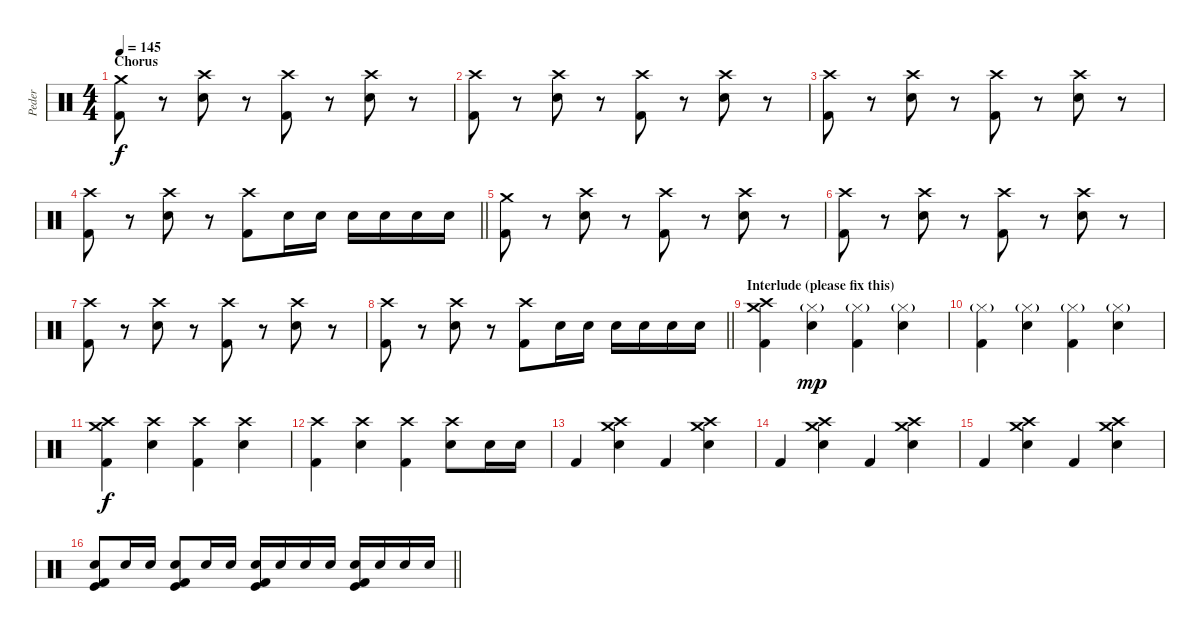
\track ("Peder" "Peder") {instrument percussion}
\staff {score}
\articulation defaults
\ts (4 4)
\section ("" "Chorus")
\tempo 145
\clef neutral
\ks c
("Crash medium (hit)" "Kick (hit) 2").8{dy f} r.8 ("Crash high (hit)" "Electric Snare (hit)").8 r.8 ("Crash high (hit)" "Kick (hit) 2").8 r.8 ("Crash high (hit)" "Electric Snare (hit)").8 r.8 |
("Crash high (hit)" "Kick (hit) 2").8 r.8 ("Crash high (hit)" "Electric Snare (hit)").8 r.8 ("Crash high (hit)" "Kick (hit) 2").8 r.8 ("Crash high (hit)" "Electric Snare (hit)").8 r.8 |
("Crash high (hit)" "Kick (hit) 2").8 r.8 ("Crash high (hit)" "Electric Snare (hit)").8 r.8 ("Crash high (hit)" "Kick (hit) 2").8 r.8 ("Crash high (hit)" "Electric Snare (hit)").8 r.8 |
\barLineRight lightlight
("Crash high (hit)" "Kick (hit) 2").8 r.8 ("Crash high (hit)" "Electric Snare (hit)").8 r.8 ("Crash high (hit)" "Kick (hit) 2").8 "Electric Snare (hit)".16 "Electric Snare (hit)".16 "Electric Snare (hit)".16 "Electric Snare (hit)".16 "Electric Snare (hit)".16 "Electric Snare (hit)".16 |
("Crash medium (hit)" "Kick (hit) 2").8 r.8 ("Crash high (hit)" "Electric Snare (hit)").8 r.8 ("Crash high (hit)" "Kick (hit) 2").8 r.8 ("Crash high (hit)" "Electric Snare (hit)").8 r.8 |
("Crash high (hit)" "Kick (hit) 2").8 r.8 ("Crash high (hit)" "Electric Snare (hit)").8 r.8 ("Crash high (hit)" "Kick (hit) 2").8 r.8 ("Crash high (hit)" "Electric Snare (hit)").8 r.8 |
("Crash high (hit)" "Kick (hit) 2").8 r.8 ("Crash high (hit)" "Electric Snare (hit)").8 r.8 ("Crash high (hit)" "Kick (hit) 2").8 r.8 ("Crash high (hit)" "Electric Snare (hit)").8 r.8 |
\barLineRight lightlight
("Crash high (hit)" "Kick (hit) 2").8 r.8 ("Crash high (hit)" "Electric Snare (hit)").8 r.8 ("Crash high (hit)" "Kick (hit) 2").8 "Electric Snare (hit)".16 "Electric Snare (hit)".16 "Electric Snare (hit)".16 "Electric Snare (hit)".16 "Electric Snare (hit)".16 "Electric Snare (hit)".16 |
\section ("" "Interlude (please fix this)")
("Crash medium (hit)" "Crash high (hit)" "Kick (hit) 2").4 ("Hi-Hat (closed)"{g} "Snare (hit) 2").4{dy mp} ("Hi-Hat (closed)"{g} "Kick (hit) 2").4 ("Hi-Hat (closed)"{g} "Snare (hit) 2").4 |
("Hi-Hat (closed)"{g} "Kick (hit) 2").4 ("Hi-Hat (closed)"{g} "Snare (hit) 2").4 ("Hi-Hat (closed)"{g} "Kick (hit) 2").4 ("Hi-Hat (closed)"{g} "Snare (hit) 2").4 |
("Crash high (hit)" "Crash medium (hit)" "Kick (hit) 2").4{dy f} ("Crash high (hit)" "Snare (hit) 2").4 ("Crash high (hit)" "Kick (hit) 2").4 ("Crash high (hit)" "Snare (hit) 2").4 |
("Crash high (hit)" "Kick (hit) 2").4 ("Crash high (hit)" "Snare (hit) 2").4 ("Crash high (hit)" "Kick (hit) 2").4 ("Crash high (hit)" "Snare (hit) 2").8 "Snare (hit) 2".16 "Snare (hit) 2".16 |
"Kick (hit) 2".4 ("Crash medium (hit)" "Crash high (hit)" "Snare (hit) 2").4 "Kick (hit) 2".4 ("Crash medium (hit)" "Crash high (hit)" "Snare (hit) 2").4 |
"Kick (hit) 2".4 ("Crash medium (hit)" "Crash high (hit)" "Snare (hit) 2").4 "Kick (hit) 2".4 ("Crash medium (hit)" "Crash high (hit)" "Snare (hit) 2").4 |
"Kick (hit) 2".4 ("Crash medium (hit)" "Crash high (hit)" "Snare (hit) 2").4 "Kick (hit) 2".4 ("Crash medium (hit)" "Crash high (hit)" "Snare (hit) 2").4 |
\barLineRight lightlight
("Electric Snare (hit)" "Kick (hit)" "Kick (hit) 2").8 "Electric Snare (hit)".16 "Electric Snare (hit)".16 ("Electric Snare (hit)" "Kick (hit)" "Kick (hit) 2").8 "Electric Snare (hit)".16 "Electric Snare (hit)".16 ("Electric Snare (hit)" "Kick (hit)" "Kick (hit) 2").16 "Electric Snare (hit)".16 "Electric Snare (hit)".16 "Electric Snare (hit)".16 ("Electric Snare (hit)" "Kick (hit)" "Kick (hit) 2").16 "Electric Snare (hit)".16 "Electric Snare (hit)".16 "Electric Snare (hit)".16
